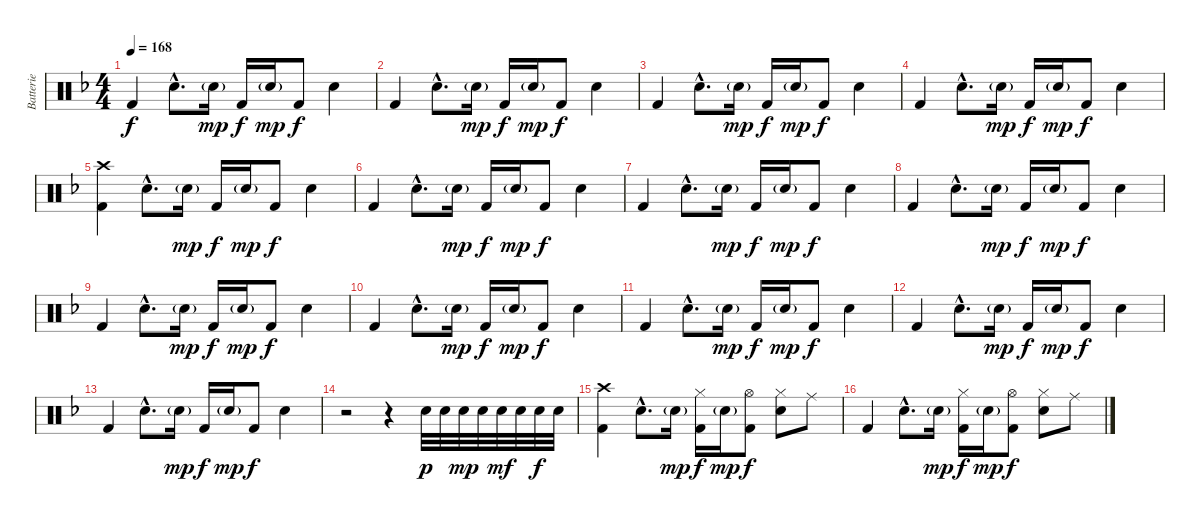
\track ("Batterie" "Batterie") {instrument percussion}
\staff {score}
\articulation defaults
\ts (4 4)
\tempo 168
\clef neutral
\ks f "Kick (hit) 2".4{dy f} "Snare (hit) 2"{hac}.8{d} "Snare (hit) 2"{g}.16{dy mp} "Kick (hit) 2".16{dy f} "Snare (hit) 2"{g}.16{dy mp} "Kick (hit) 2".8{dy f} "Snare (hit) 2".4
|
"Kick (hit) 2".4 "Snare (hit) 2"{hac}.8{d} "Snare (hit) 2"{g}.16{dy mp} "Kick (hit) 2".16{dy f} "Snare (hit) 2"{g}.16{dy mp} "Kick (hit) 2".8{dy f} "Snare (hit) 2".4 |
"Kick (hit) 2".4 "Snare (hit) 2"{hac}.8{d} "Snare (hit) 2"{g}.16{dy mp} "Kick (hit) 2".16{dy f} "Snare (hit) 2"{g}.16{dy mp} "Kick (hit) 2".8{dy f} "Snare (hit) 2".4 |
"Kick (hit) 2".4 "Snare (hit) 2"{hac}.8{d} "Snare (hit) 2"{g}.16{dy mp} "Kick (hit) 2".16{dy f} "Snare (hit) 2"{g}.16{dy mp} "Kick (hit) 2".8{dy f} "Snare (hit) 2".4 |
("Crash high (hit)" "Kick (hit) 2").4 "Snare (hit) 2"{hac}.8{d} "Snare (hit) 2"{g}.16{dy mp} "Kick (hit) 2".16{dy f} "Snare (hit) 2"{g}.16{dy mp} "Kick (hit) 2".8{dy f} "Snare (hit) 2".4 |
"Kick (hit) 2".4 "Snare (hit) 2"{hac}.8{d} "Snare (hit) 2"{g}.16{dy mp} "Kick (hit) 2".16{dy f} "Snare (hit) 2"{g}.16{dy mp} "Kick (hit) 2".8{dy f} "Snare (hit) 2".4 |
"Kick (hit) 2".4 "Snare (hit) 2"{hac}.8{d} "Snare (hit) 2"{g}.16{dy mp} "Kick (hit) 2".16{dy f} "Snare (hit) 2"{g}.16{dy mp} "Kick (hit) 2".8{dy f} "Snare (hit) 2".4 |
"Kick (hit) 2".4 "Snare (hit) 2"{hac}.8{d} "Snare (hit) 2"{g}.16{dy mp} "Kick (hit) 2".16{dy f} "Snare (hit) 2"{g}.16{dy mp} "Kick (hit) 2".8{dy f} "Snare (hit) 2".4 |
"Kick (hit) 2".4 "Snare (hit) 2"{hac}.8{d} "Snare (hit) 2"{g}.16{dy mp} "Kick (hit) 2".16{dy f} "Snare (hit) 2"{g}.16{dy mp} "Kick (hit) 2".8{dy f} "Snare (hit) 2".4 |
"Kick (hit) 2".4 "Snare (hit) 2"{hac}.8{d} "Snare (hit) 2"{g}.16{dy mp} "Kick (hit) 2".16{dy f} "Snare (hit) 2"{g}.16{dy mp} "Kick (hit) 2".8{dy f} "Snare (hit) 2".4 |
"Kick (hit) 2".4 "Snare (hit) 2"{hac}.8{d} "Snare (hit) 2"{g}.16{dy mp} "Kick (hit) 2".16{dy f} "Snare (hit) 2"{g}.16{dy mp} "Kick (hit) 2".8{dy f} "Snare (hit) 2".4 |
"Kick (hit) 2".4 "Snare (hit) 2"{hac}.8{d} "Snare (hit) 2"{g}.16{dy mp} "Kick (hit) 2".16{dy f} "Snare (hit) 2"{g}.16{dy mp} "Kick (hit) 2".8{dy f} "Snare (hit) 2".4 |
"Kick (hit) 2".4 "Snare (hit) 2"{hac}.8{d} "Snare (hit) 2"{g}.16{dy mp} "Kick (hit) 2".16{dy f} "Snare (hit) 2"{g}.16{dy mp} "Kick (hit) 2".8{dy f} "Snare (hit) 2".4 |
r.2 r.4 "Snare (hit) 2".32{dy p} "Snare (hit) 2".32 "Snare (hit) 2".32{dy mp} "Snare (hit) 2".32 "Snare (hit) 2".32{dy mf} "Snare (hit) 2".32 "Snare (hit) 2".32{dy f} "Snare (hit) 2".32 |
("Crash high (hit)" "Kick (hit) 2").4 "Snare (hit) 2"{hac}.8{d} "Snare (hit) 2"{g}.16{dy mp} ("Hi-Hat (closed)" "Kick (hit) 2").16{dy f} "Snare (hit) 2"{g}.16{dy mp} ("Hi-Hat (open)" "Kick (hit) 2").8{dy f} ("Hi-Hat (closed)" "Snare (hit) 2").8 "Ride (middle)".8 |
"Kick (hit) 2".4 "Snare (hit) 2"{hac}.8{d} "Snare (hit) 2"{g}.16{dy mp} ("Hi-Hat (closed)" "Kick (hit) 2").16{dy f} "Snare (hit) 2"{g}.16{dy mp} ("Hi-Hat (open)" "Kick (hit) 2").8{dy f} ("Hi-Hat (closed)" "Snare (hit) 2").8 "Ride (middle)".8
